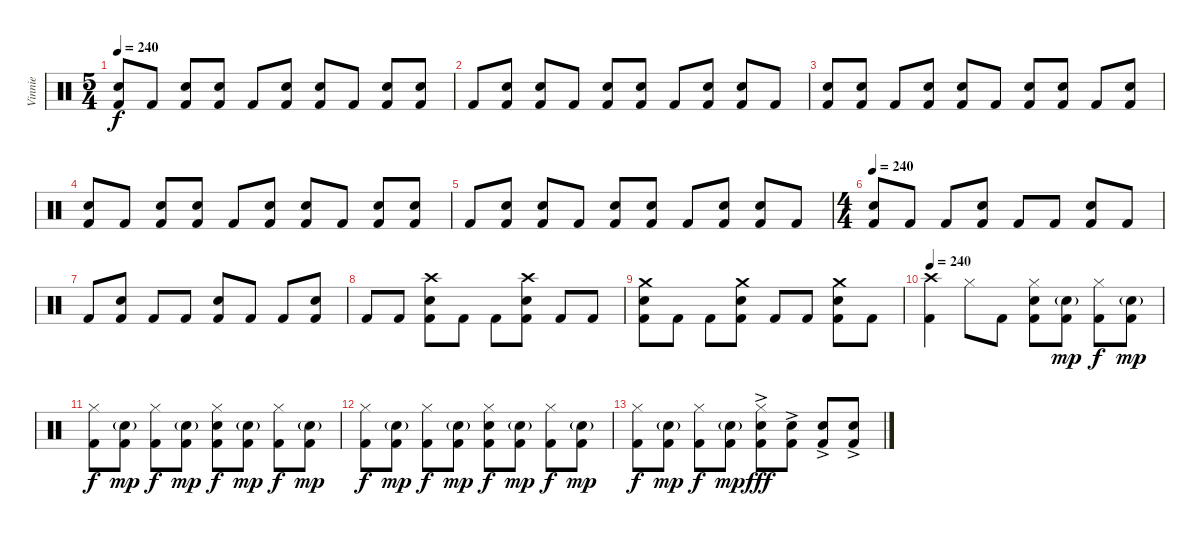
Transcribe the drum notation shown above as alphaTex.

\track ("Vinnie" "Vinnie") {instrument percussion}
\staff {score}
\articulation defaults
\ts (5 4)
\tempo 240
\clef neutral
\ks c
("Electric Snare (hit)" "Kick (hit) 2").8{dy f} "Kick (hit) 2".8 ("Electric Snare (hit)" "Kick (hit) 2").8 ("Electric Snare (hit)" "Kick (hit) 2").8 "Kick (hit) 2".8 ("Electric Snare (hit)" "Kick (hit) 2").8 ("Electric Snare (hit)" "Kick (hit) 2").8 "Kick (hit) 2".8 ("Electric Snare (hit)" "Kick (hit) 2").8 ("Electric Snare (hit)" "Kick (hit) 2").8 |
"Kick (hit) 2".8 ("Electric Snare (hit)" "Kick (hit) 2").8 ("Electric Snare (hit)" "Kick (hit) 2").8 "Kick (hit) 2".8 ("Electric Snare (hit)" "Kick (hit) 2").8 ("Electric Snare (hit)" "Kick (hit) 2").8 "Kick (hit) 2".8 ("Electric Snare (hit)" "Kick (hit) 2").8 ("Electric Snare (hit)" "Kick (hit) 2").8 "Kick (hit) 2".8 |
("Electric Snare (hit)" "Kick (hit) 2").8 ("Electric Snare (hit)" "Kick (hit) 2").8 "Kick (hit) 2".8 ("Electric Snare (hit)" "Kick (hit) 2").8 ("Electric Snare (hit)" "Kick (hit) 2").8 "Kick (hit) 2".8 ("Electric Snare (hit)" "Kick (hit) 2").8 ("Electric Snare (hit)" "Kick (hit) 2").8 "Kick (hit) 2".8 ("Electric Snare (hit)" "Kick (hit) 2").8 |
("Electric Snare (hit)" "Kick (hit) 2").8 "Kick (hit) 2".8 ("Electric Snare (hit)" "Kick (hit) 2").8 ("Electric Snare (hit)" "Kick (hit) 2").8 "Kick (hit) 2".8 ("Electric Snare (hit)" "Kick (hit) 2").8 ("Electric Snare (hit)" "Kick (hit) 2").8 "Kick (hit) 2".8 ("Electric Snare (hit)" "Kick (hit) 2").8 ("Electric Snare (hit)" "Kick (hit) 2").8 |
"Kick (hit) 2".8 ("Electric Snare (hit)" "Kick (hit) 2").8 ("Electric Snare (hit)" "Kick (hit) 2").8 "Kick (hit) 2".8 ("Electric Snare (hit)" "Kick (hit) 2").8 ("Electric Snare (hit)" "Kick (hit) 2").8 "Kick (hit) 2".8 ("Electric Snare (hit)" "Kick (hit) 2").8 ("Electric Snare (hit)" "Kick (hit) 2").8 "Kick (hit) 2".8 |
\ts (4 4)
\tempo 240
("Electric Snare (hit)" "Kick (hit) 2").8 "Kick (hit) 2".8 "Kick (hit) 2".8 ("Electric Snare (hit)" "Kick (hit) 2").8 "Kick (hit) 2".8 "Kick (hit) 2".8 ("Electric Snare (hit)" "Kick (hit) 2").8 "Kick (hit) 2".8 |
"Kick (hit) 2".8 ("Electric Snare (hit)" "Kick (hit) 2").8 "Kick (hit) 2".8 "Kick (hit) 2".8 ("Electric Snare (hit)" "Kick (hit) 2").8 "Kick (hit) 2".8 "Kick (hit) 2".8 ("Electric Snare (hit)" "Kick (hit) 2").8 |
"Kick (hit) 2".8 "Kick (hit) 2".8 ("Crash high (hit)" "Electric Snare (hit)" "Kick (hit) 2").8 "Kick (hit) 2".8 "Kick (hit) 2".8 ("Crash high (hit)" "Electric Snare (hit)" "Kick (hit) 2").8 "Kick (hit) 2".8 "Kick (hit) 2".8 |
("Crash medium (hit)" "Electric Snare (hit)" "Kick (hit) 2").8 "Kick (hit) 2".8 "Kick (hit) 2".8 ("Crash medium (hit)" "Electric Snare (hit)" "Kick (hit) 2").8 "Kick (hit) 2".8 "Kick (hit) 2".8 ("Crash medium (hit)" "Electric Snare (hit)" "Kick (hit) 2").8 "Kick (hit) 2".8 |
\tempo 240
("Crash high (hit)" "Kick (hit) 2").4 "Hi-Hat (closed)".8 "Kick (hit) 2".8 ("Hi-Hat (closed)" "Electric Snare (hit)" "Kick (hit) 2").8 ("Electric Snare (hit)"{g} "Kick (hit) 2").8{dy mp} ("Hi-Hat (closed)" "Kick (hit) 2").8{dy f} ("Electric Snare (hit)"{g} "Kick (hit) 2").8{dy mp} |
("Hi-Hat (closed)" "Kick (hit) 2").8{dy f} ("Electric Snare (hit)"{g} "Kick (hit) 2").8{dy mp} ("Hi-Hat (closed)" "Kick (hit) 2").8{dy f} ("Electric Snare (hit)"{g} "Kick (hit) 2").8{dy mp} ("Hi-Hat (closed)" "Electric Snare (hit)" "Kick (hit) 2").8{dy f} ("Electric Snare (hit)"{g} "Kick (hit) 2").8{dy mp} ("Hi-Hat (closed)" "Kick (hit) 2").8{dy f} ("Electric Snare (hit)"{g} "Kick (hit) 2").8{dy mp} |
("Hi-Hat (closed)" "Kick (hit) 2").8{dy f} ("Electric Snare (hit)"{g} "Kick (hit) 2").8{dy mp} ("Hi-Hat (closed)" "Kick (hit) 2").8{dy f} ("Electric Snare (hit)"{g} "Kick (hit) 2").8{dy mp} ("Hi-Hat (closed)" "Electric Snare (hit)" "Kick (hit) 2").8{dy f} ("Electric Snare (hit)"{g} "Kick (hit) 2").8{dy mp} ("Hi-Hat (closed)" "Kick (hit) 2").8{dy f} ("Electric Snare (hit)"{g} "Kick (hit) 2").8{dy mp} |
("Hi-Hat (closed)" "Kick (hit) 2").8{dy f} ("Electric Snare (hit)"{g} "Kick (hit) 2").8{dy mp} ("Hi-Hat (closed)" "Kick (hit) 2").8{dy f} ("Electric Snare (hit)"{g} "Kick (hit) 2").8{dy mp} ("Hi-Hat (closed)" "Electric Snare (hit)"{ac} "Kick (hit) 2").8{dy fff} ("Electric Snare (hit)"{ac} "Kick (hit) 2").8 ("Electric Snare (hit)"{ac} "Kick (hit) 2").8 ("Electric Snare (hit)"{ac} "Kick (hit) 2").8
